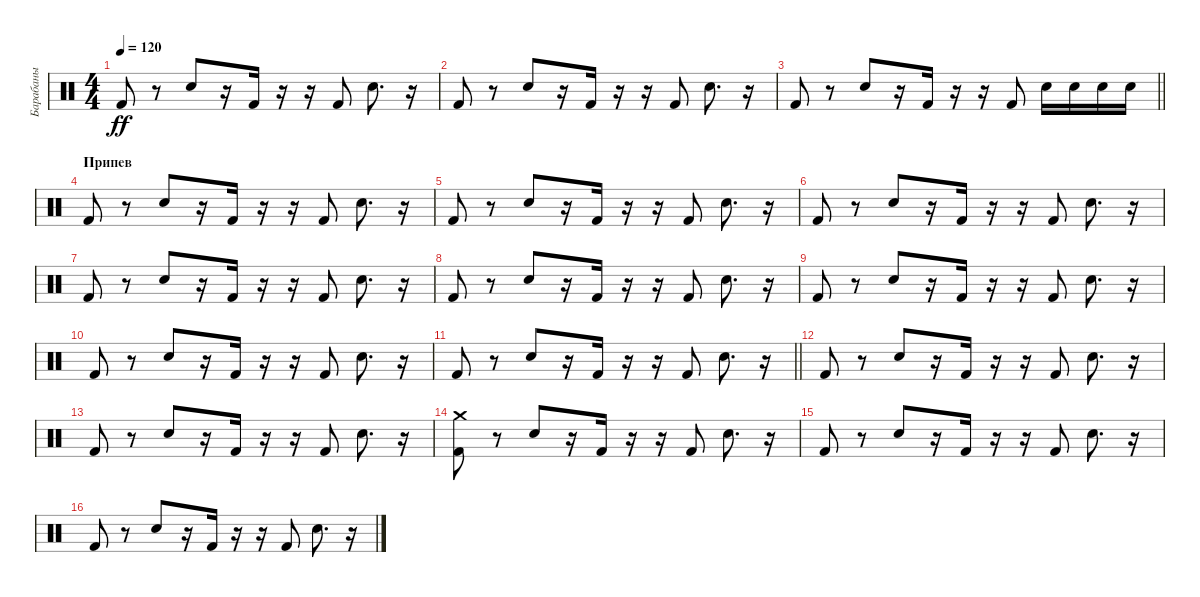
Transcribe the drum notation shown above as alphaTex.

\track ("Барабаны" "Барабаны") {instrument percussion}
\staff {score}
\articulation defaults
\ts (4 4)
\tempo 120
\clef neutral
\ks c "Kick (hit) 2".8{dy ff}
r.8 "Snare (hit) 2".8 r.16 "Kick (hit) 2".16 r.16 r.16 "Kick (hit) 2".8 "Snare (hit) 2".8{d} r.16 |
"Kick (hit) 2".8 r.8 "Snare (hit) 2".8 r.16 "Kick (hit) 2".16 r.16 r.16 "Kick (hit) 2".8 "Snare (hit) 2".8{d} r.16 |
\barLineRight lightlight "Kick (hit) 2".8
r.8 "Snare (hit) 2".8 r.16 "Kick (hit) 2".16 r.16 r.16 "Kick (hit) 2".8 "Electric Snare (hit)".16 "Electric Snare (hit)".16 "Electric Snare (hit)".16 "Electric Snare (hit)".16 |
\section ("" "Припев")
"Kick (hit) 2".8 r.8 "Snare (hit) 2".8 r.16 "Kick (hit) 2".16 r.16 r.16 "Kick (hit) 2".8 "Snare (hit) 2".8{d} r.16 |
"Kick (hit) 2".8 r.8 "Snare (hit) 2".8 r.16 "Kick (hit) 2".16 r.16 r.16 "Kick (hit) 2".8 "Snare (hit) 2".8{d} r.16 |
"Kick (hit) 2".8 r.8 "Snare (hit) 2".8 r.16 "Kick (hit) 2".16 r.16 r.16 "Kick (hit) 2".8 "Snare (hit) 2".8{d} r.16 |
"Kick (hit) 2".8 r.8 "Snare (hit) 2".8 r.16 "Kick (hit) 2".16 r.16 r.16 "Kick (hit) 2".8 "Snare (hit) 2".8{d} r.16 |
"Kick (hit) 2".8 r.8 "Snare (hit) 2".8 r.16 "Kick (hit) 2".16 r.16 r.16 "Kick (hit) 2".8 "Snare (hit) 2".8{d} r.16 |
"Kick (hit) 2".8 r.8 "Snare (hit) 2".8 r.16 "Kick (hit) 2".16 r.16 r.16 "Kick (hit) 2".8 "Snare (hit) 2".8{d} r.16 |
"Kick (hit) 2".8 r.8 "Snare (hit) 2".8 r.16 "Kick (hit) 2".16 r.16 r.16 "Kick (hit) 2".8 "Snare (hit) 2".8{d} r.16 |
\barLineRight lightlight "Kick (hit) 2".8
r.8 "Snare (hit) 2".8 r.16 "Kick (hit) 2".16 r.16 r.16 "Kick (hit) 2".8 "Snare (hit) 2".8{d} r.16 |
"Kick (hit) 2".8 r.8 "Snare (hit) 2".8 r.16 "Kick (hit) 2".16 r.16 r.16 "Kick (hit) 2".8 "Snare (hit) 2".8{d} r.16 |
"Kick (hit) 2".8 r.8 "Snare (hit) 2".8 r.16 "Kick (hit) 2".16 r.16 r.16 "Kick (hit) 2".8 "Snare (hit) 2".8{d} r.16 |
("Crash medium (hit)" "Kick (hit) 2").8 r.8 "Snare (hit) 2".8 r.16 "Kick (hit) 2".16 r.16 r.16 "Kick (hit) 2".8 "Snare (hit) 2".8{d} r.16 |
"Kick (hit) 2".8 r.8 "Snare (hit) 2".8 r.16 "Kick (hit) 2".16 r.16 r.16 "Kick (hit) 2".8 "Snare (hit) 2".8{d} r.16 |
"Kick (hit) 2".8 r.8 "Snare (hit) 2".8 r.16 "Kick (hit) 2".16 r.16 r.16 "Kick (hit) 2".8 "Snare (hit) 2".8{d} r.16
